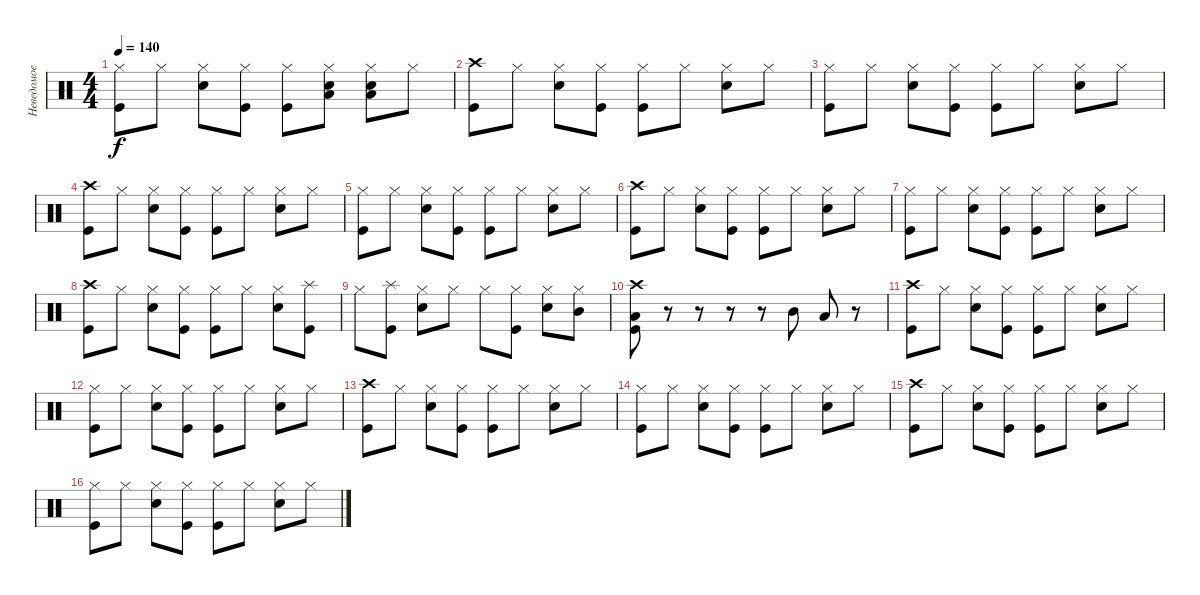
\track ("Неведомое существо" "Неведомое ") {instrument percussion}
\staff {score}
\articulation defaults
\ts (4 4)
\tempo 140
\clef neutral
\ks c
("Hi-Hat (closed)" "Kick (hit)").8{dy f} "Hi-Hat (closed)".8 ("Hi-Hat (closed)" "Snare (hit) 2").8 ("Hi-Hat (closed)" "Kick (hit)").8 ("Hi-Hat (closed)" "Kick (hit)").8 ("Hi-Hat (closed)" "Snare (hit) 2" "Low Tom (hit)").8 ("Hi-Hat (closed)" "Snare (hit) 2" "Low Floor Tom (hit)").8 "Hi-Hat (closed)".8 |
("Crash high (hit)" "Kick (hit)").8 "Hi-Hat (closed)".8 ("Hi-Hat (closed)" "Snare (hit) 2").8 ("Hi-Hat (closed)" "Kick (hit)").8 ("Hi-Hat (closed)" "Kick (hit)").8 "Hi-Hat (closed)".8 ("Hi-Hat (closed)" "Snare (hit) 2").8 "Hi-Hat (closed)".8 |
("Hi-Hat (closed)" "Kick (hit)").8 "Hi-Hat (closed)".8 ("Hi-Hat (closed)" "Snare (hit) 2").8 ("Hi-Hat (closed)" "Kick (hit)").8 ("Hi-Hat (closed)" "Kick (hit)").8 "Hi-Hat (closed)".8 ("Hi-Hat (closed)" "Snare (hit) 2").8 "Hi-Hat (closed)".8 |
("Crash high (hit)" "Kick (hit)").8 "Hi-Hat (closed)".8 ("Hi-Hat (closed)" "Snare (hit) 2").8 ("Hi-Hat (closed)" "Kick (hit)").8 ("Hi-Hat (closed)" "Kick (hit)").8 "Hi-Hat (closed)".8 ("Hi-Hat (closed)" "Snare (hit) 2").8 "Hi-Hat (closed)".8 |
("Hi-Hat (closed)" "Kick (hit)").8 "Hi-Hat (closed)".8 ("Hi-Hat (closed)" "Snare (hit) 2").8 ("Hi-Hat (closed)" "Kick (hit)").8 ("Hi-Hat (closed)" "Kick (hit)").8 "Hi-Hat (closed)".8 ("Hi-Hat (closed)" "Snare (hit) 2").8 "Hi-Hat (closed)".8 |
("Crash high (hit)" "Kick (hit)").8 "Hi-Hat (closed)".8 ("Hi-Hat (closed)" "Snare (hit) 2").8 ("Hi-Hat (closed)" "Kick (hit)").8 ("Hi-Hat (closed)" "Kick (hit)").8 "Hi-Hat (closed)".8 ("Hi-Hat (closed)" "Snare (hit) 2").8 "Hi-Hat (closed)".8 |
("Hi-Hat (closed)" "Kick (hit)").8 "Hi-Hat (closed)".8 ("Hi-Hat (closed)" "Snare (hit) 2").8 ("Hi-Hat (closed)" "Kick (hit)").8 ("Hi-Hat (closed)" "Kick (hit)").8 "Hi-Hat (closed)".8 ("Hi-Hat (closed)" "Snare (hit) 2").8 "Hi-Hat (closed)".8 |
("Crash high (hit)" "Kick (hit)").8 "Hi-Hat (closed)".8 ("Hi-Hat (closed)" "Snare (hit) 2").8 ("Hi-Hat (closed)" "Kick (hit)").8 ("Hi-Hat (closed)" "Kick (hit)").8 "Hi-Hat (closed)".8 ("Hi-Hat (closed)" "Snare (hit) 2").8 ("Splash (hit)" "Kick (hit)").8 |
"Hi-Hat (closed)".8 ("Splash (hit)" "Kick (hit)").8 ("Hi-Hat (closed)" "Snare (hit) 2").8 "Hi-Hat (closed)".8 "Hi-Hat (closed)".8 ("Hi-Hat (closed)" "Kick (hit)").8 ("Hi-Hat (closed)" "Snare (hit) 2").8 ("Hi-Hat (closed)" "Mid Tom (hit)").8 |
("Crash high (hit)" "Low Tom (hit)" "Kick (hit)").8 r.8 r.8 r.8 r.8 "Mid Tom (hit)".8 "Low Tom (hit)".8 r.8 |
("Crash high (hit)" "Kick (hit)").8 "Hi-Hat (closed)".8 ("Hi-Hat (closed)" "Snare (hit) 2").8 ("Hi-Hat (closed)" "Kick (hit)").8 ("Hi-Hat (closed)" "Kick (hit)").8 "Hi-Hat (closed)".8 ("Hi-Hat (closed)" "Snare (hit) 2").8 "Hi-Hat (closed)".8 |
("Hi-Hat (closed)" "Kick (hit)").8 "Hi-Hat (closed)".8 ("Hi-Hat (closed)" "Snare (hit) 2").8 ("Hi-Hat (closed)" "Kick (hit)").8 ("Hi-Hat (closed)" "Kick (hit)").8 "Hi-Hat (closed)".8 ("Hi-Hat (closed)" "Snare (hit) 2").8 "Hi-Hat (closed)".8 |
("Crash high (hit)" "Kick (hit)").8 "Hi-Hat (closed)".8 ("Hi-Hat (closed)" "Snare (hit) 2").8 ("Hi-Hat (closed)" "Kick (hit)").8 ("Hi-Hat (closed)" "Kick (hit)").8 "Hi-Hat (closed)".8 ("Hi-Hat (closed)" "Snare (hit) 2").8 "Hi-Hat (closed)".8 |
("Hi-Hat (closed)" "Kick (hit)").8 "Hi-Hat (closed)".8 ("Hi-Hat (closed)" "Snare (hit) 2").8 ("Hi-Hat (closed)" "Kick (hit)").8 ("Hi-Hat (closed)" "Kick (hit)").8 "Hi-Hat (closed)".8 ("Hi-Hat (closed)" "Snare (hit) 2").8 "Hi-Hat (closed)".8 |
("Crash high (hit)" "Kick (hit)").8 "Hi-Hat (closed)".8 ("Hi-Hat (closed)" "Snare (hit) 2").8 ("Hi-Hat (closed)" "Kick (hit)").8 ("Hi-Hat (closed)" "Kick (hit)").8 "Hi-Hat (closed)".8 ("Hi-Hat (closed)" "Snare (hit) 2").8 "Hi-Hat (closed)".8 |
("Hi-Hat (closed)" "Kick (hit)").8 "Hi-Hat (closed)".8 ("Hi-Hat (closed)" "Snare (hit) 2").8 ("Hi-Hat (closed)" "Kick (hit)").8 ("Hi-Hat (closed)" "Kick (hit)").8 "Hi-Hat (closed)".8 ("Hi-Hat (closed)" "Snare (hit) 2").8 "Hi-Hat (closed)".8
